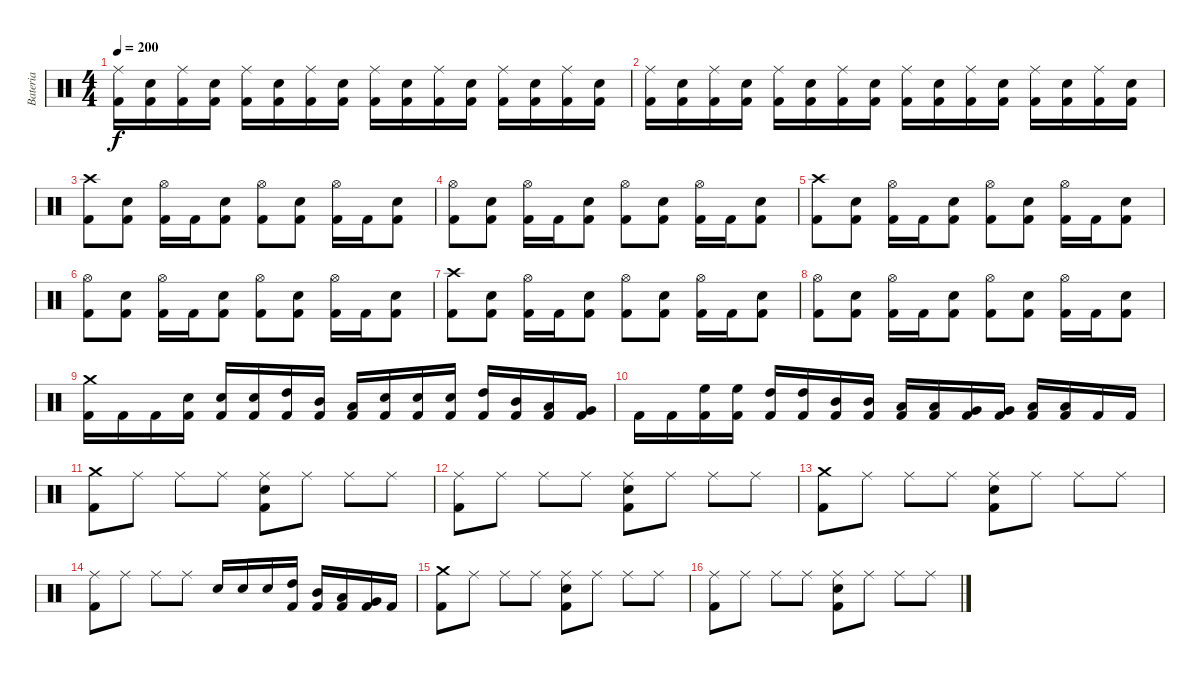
\track ("Bateria" "Bateria") {instrument percussion}
\staff {score}
\articulation defaults
\ts (4 4)
\tempo 200
\clef neutral
\ks c
("Ride (middle)" "Kick (hit) 2").16{dy f} ("Electric Snare (hit)" "Kick (hit) 2").16 ("Ride (middle)" "Kick (hit) 2").16 ("Electric Snare (hit)" "Kick (hit) 2").16 ("Ride (middle)" "Kick (hit) 2").16 ("Electric Snare (hit)" "Kick (hit) 2").16 ("Ride (middle)" "Kick (hit) 2").16 ("Electric Snare (hit)" "Kick (hit) 2").16 ("Ride (middle)" "Kick (hit) 2").16 ("Electric Snare (hit)" "Kick (hit) 2").16 ("Ride (middle)" "Kick (hit) 2").16 ("Electric Snare (hit)" "Kick (hit) 2").16 ("Ride (middle)" "Kick (hit) 2").16 ("Electric Snare (hit)" "Kick (hit) 2").16 ("Ride (middle)" "Kick (hit) 2").16 ("Electric Snare (hit)" "Kick (hit) 2").16 |
("Ride (middle)" "Kick (hit) 2").16 ("Electric Snare (hit)" "Kick (hit) 2").16 ("Ride (middle)" "Kick (hit) 2").16 ("Electric Snare (hit)" "Kick (hit) 2").16 ("Ride (middle)" "Kick (hit) 2").16 ("Electric Snare (hit)" "Kick (hit) 2").16 ("Ride (middle)" "Kick (hit) 2").16 ("Electric Snare (hit)" "Kick (hit) 2").16 ("Ride (middle)" "Kick (hit) 2").16 ("Electric Snare (hit)" "Kick (hit) 2").16 ("Ride (middle)" "Kick (hit) 2").16 ("Electric Snare (hit)" "Kick (hit) 2").16 ("Ride (middle)" "Kick (hit) 2").16 ("Electric Snare (hit)" "Kick (hit) 2").16 ("Ride (middle)" "Kick (hit) 2").16 ("Electric Snare (hit)" "Kick (hit) 2").16 |
("Crash high (hit)" "Kick (hit) 2").8 ("Electric Snare (hit)" "Kick (hit) 2").8 ("Hi-Hat (open)" "Kick (hit) 2").16 "Kick (hit) 2".16 ("Electric Snare (hit)" "Kick (hit) 2").8 ("Hi-Hat (open)" "Kick (hit) 2").8 ("Electric Snare (hit)" "Kick (hit) 2").8 ("Hi-Hat (open)" "Kick (hit) 2").16 "Kick (hit) 2".16 ("Electric Snare (hit)" "Kick (hit) 2").8 |
("Hi-Hat (open)" "Kick (hit) 2").8 ("Electric Snare (hit)" "Kick (hit) 2").8 ("Hi-Hat (open)" "Kick (hit) 2").16 "Kick (hit) 2".16 ("Electric Snare (hit)" "Kick (hit) 2").8 ("Hi-Hat (open)" "Kick (hit) 2").8 ("Electric Snare (hit)" "Kick (hit) 2").8 ("Hi-Hat (open)" "Kick (hit) 2").16 "Kick (hit) 2".16 ("Electric Snare (hit)" "Kick (hit) 2").8 |
("Crash high (hit)" "Kick (hit) 2").8 ("Electric Snare (hit)" "Kick (hit) 2").8 ("Hi-Hat (open)" "Kick (hit) 2").16 "Kick (hit) 2".16 ("Electric Snare (hit)" "Kick (hit) 2").8 ("Hi-Hat (open)" "Kick (hit) 2").8 ("Electric Snare (hit)" "Kick (hit) 2").8 ("Hi-Hat (open)" "Kick (hit) 2").16 "Kick (hit) 2".16 ("Electric Snare (hit)" "Kick (hit) 2").8 |
("Hi-Hat (open)" "Kick (hit) 2").8 ("Electric Snare (hit)" "Kick (hit) 2").8 ("Hi-Hat (open)" "Kick (hit) 2").16 "Kick (hit) 2".16 ("Electric Snare (hit)" "Kick (hit) 2").8 ("Hi-Hat (open)" "Kick (hit) 2").8 ("Electric Snare (hit)" "Kick (hit) 2").8 ("Hi-Hat (open)" "Kick (hit) 2").16 "Kick (hit) 2".16 ("Electric Snare (hit)" "Kick (hit) 2").8 |
("Crash high (hit)" "Kick (hit) 2").8 ("Electric Snare (hit)" "Kick (hit) 2").8 ("Hi-Hat (open)" "Kick (hit) 2").16 "Kick (hit) 2".16 ("Electric Snare (hit)" "Kick (hit) 2").8 ("Hi-Hat (open)" "Kick (hit) 2").8 ("Electric Snare (hit)" "Kick (hit) 2").8 ("Hi-Hat (open)" "Kick (hit) 2").16 "Kick (hit) 2".16 ("Electric Snare (hit)" "Kick (hit) 2").8 |
("Hi-Hat (open)" "Kick (hit) 2").8 ("Electric Snare (hit)" "Kick (hit) 2").8 ("Hi-Hat (open)" "Kick (hit) 2").16 "Kick (hit) 2".16 ("Electric Snare (hit)" "Kick (hit) 2").8 ("Hi-Hat (open)" "Kick (hit) 2").8 ("Electric Snare (hit)" "Kick (hit) 2").8 ("Hi-Hat (open)" "Kick (hit) 2").16 "Kick (hit) 2".16 ("Electric Snare (hit)" "Kick (hit) 2").8 |
("Crash medium (hit)" "Kick (hit) 2").16 "Kick (hit) 2".16 "Kick (hit) 2".16 ("Electric Snare (hit)" "Kick (hit) 2").16 ("Electric Snare (hit)" "Kick (hit) 2").16 ("Electric Snare (hit)" "Kick (hit) 2").16 ("High Tom (hit)" "Kick (hit) 2").16 ("Mid Tom (hit)" "Kick (hit) 2").16 ("Low Tom (hit)" "Kick (hit) 2").16 ("Electric Snare (hit)" "Kick (hit) 2").16 ("Electric Snare (hit)" "Kick (hit) 2").16 ("Electric Snare (hit)" "Kick (hit) 2").16 ("High Tom (hit)" "Kick (hit) 2").16 ("Mid Tom (hit)" "Kick (hit) 2").16 ("Low Tom (hit)" "Kick (hit) 2").16 ("Very Low Tom (hit)" "Kick (hit) 2").16 |
"Kick (hit) 2".16 "Kick (hit) 2".16 ("High Floor Tom (hit)" "Kick (hit) 2").16 ("High Floor Tom (hit)" "Kick (hit) 2").16 ("High Tom (hit)" "Kick (hit) 2").16 ("High Tom (hit)" "Kick (hit) 2").16 ("Mid Tom (hit)" "Kick (hit) 2").16 ("Mid Tom (hit)" "Kick (hit) 2").16 ("Low Tom (hit)" "Kick (hit) 2").16 ("Low Tom (hit)" "Kick (hit) 2").16 ("Very Low Tom (hit)" "Kick (hit) 2").16 ("Very Low Tom (hit)" "Kick (hit) 2").16 ("Low Floor Tom (hit)" "Kick (hit) 2").16 ("Low Floor Tom (hit)" "Kick (hit) 2").16 "Kick (hit) 2".16 "Kick (hit) 2".16 |
("Crash medium (hit)" "Kick (hit) 2").8 "Ride (middle)".8 "Ride (middle)".8 "Ride (middle)".8 ("Ride (middle)" "Electric Snare (hit)" "Kick (hit) 2").8 "Ride (middle)".8 "Ride (middle)".8 "Ride (middle)".8 |
("Ride (middle)" "Kick (hit) 2").8 "Ride (middle)".8 "Ride (middle)".8 "Ride (middle)".8 ("Ride (middle)" "Electric Snare (hit)" "Kick (hit) 2").8 "Ride (middle)".8 "Ride (middle)".8 "Ride (middle)".8 |
("Crash medium (hit)" "Kick (hit) 2").8 "Ride (middle)".8 "Ride (middle)".8 "Ride (middle)".8 ("Ride (middle)" "Electric Snare (hit)" "Kick (hit) 2").8 "Ride (middle)".8 "Ride (middle)".8 "Ride (middle)".8 |
("Ride (middle)" "Kick (hit) 2").8 "Ride (middle)".8 "Ride (middle)".8 "Ride (middle)".8 "Electric Snare (hit)".16 "Electric Snare (hit)".16 "Electric Snare (hit)".16 ("High Tom (hit)" "Kick (hit) 2").16 ("Mid Tom (hit)" "Kick (hit) 2").16 ("Low Tom (hit)" "Kick (hit) 2").16 ("Very Low Tom (hit)" "Kick (hit) 2").16 "Kick (hit) 2".16 |
("Crash medium (hit)" "Kick (hit) 2").8 "Ride (middle)".8 "Ride (middle)".8 "Ride (middle)".8 ("Ride (middle)" "Electric Snare (hit)" "Kick (hit) 2").8 "Ride (middle)".8 "Ride (middle)".8 "Ride (middle)".8 |
("Ride (middle)" "Kick (hit) 2").8 "Ride (middle)".8 "Ride (middle)".8 "Ride (middle)".8 ("Ride (middle)" "Electric Snare (hit)" "Kick (hit) 2").8 "Ride (middle)".8 "Ride (middle)".8 "Ride (middle)".8
